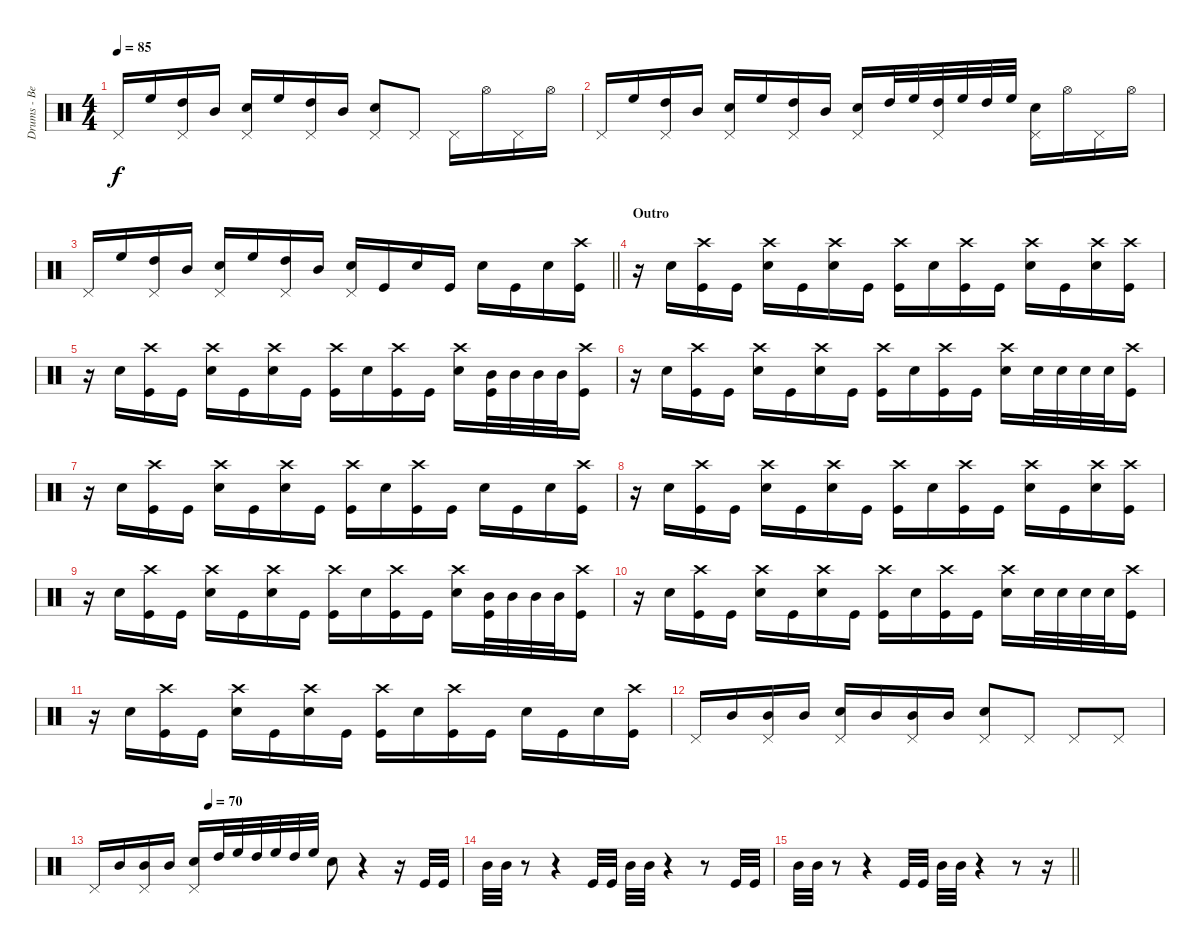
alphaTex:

\track ("Drums - Ben Johnston" "Drums - Be") {instrument percussion}
\staff {score}
\articulation defaults
\ts (4 4)
\tempo 85
\clef neutral
\ks c "Pedal Hi-Hat (hit)".16{dy f} "High Floor Tom (hit)".16
("High Tom (hit)" "Pedal Hi-Hat (hit)").16 "Mid Tom (hit)".16 ("Pedal Hi-Hat (hit)" "Snare (hit) 2").16 "High Floor Tom (hit)".16 ("High Tom (hit)" "Pedal Hi-Hat (hit)").16 "Mid Tom (hit)".16 ("Pedal Hi-Hat (hit)" "Snare (hit) 2").8 "Pedal Hi-Hat (hit)".8 "Pedal Hi-Hat (hit)".16 "Hi-Hat (open)".16 "Pedal Hi-Hat (hit)".16 "Hi-Hat (open)".16 |
"Pedal Hi-Hat (hit)".16 "High Floor Tom (hit)".16 ("High Tom (hit)" "Pedal Hi-Hat (hit)").16 "Mid Tom (hit)".16 ("Pedal Hi-Hat (hit)" "Snare (hit) 2").16 "High Floor Tom (hit)".16 ("High Tom (hit)" "Pedal Hi-Hat (hit)").16 "Mid Tom (hit)".16 ("Pedal Hi-Hat (hit)" "Snare (hit) 2").16 "High Tom (hit)".32 "High Floor Tom (hit)".32 ("High Tom (hit)" "Pedal Hi-Hat (hit)").32 "High Floor Tom (hit)".32 "High Tom (hit)".32 "High Floor Tom (hit)".32 ("Pedal Hi-Hat (hit)" "Snare (hit) 2").16 "Hi-Hat (open)".16 "Pedal Hi-Hat (hit)".16 "Hi-Hat (open)".16 |
\barLineRight lightlight "Pedal Hi-Hat (hit)".16 "High Floor Tom (hit)".16
("High Tom (hit)" "Pedal Hi-Hat (hit)").16 "Mid Tom (hit)".16 ("Pedal Hi-Hat (hit)" "Snare (hit) 2").16 "High Floor Tom (hit)".16 ("High Tom (hit)" "Pedal Hi-Hat (hit)").16 "Mid Tom (hit)".16 ("Pedal Hi-Hat (hit)" "Snare (hit) 2").16 "Kick (hit)".16 "Snare (hit) 2".16 "Kick (hit)".16 "Snare (hit) 2".16 "Kick (hit)".16 "Snare (hit) 2".16 ("Crash high (hit)" "Kick (hit)").16 |
\section ("" "Outro")
r.16 "Snare (hit) 2".16 ("Crash high (hit)" "Kick (hit)").16 "Kick (hit)".16 ("Crash high (hit)" "Snare (hit) 2").16 "Kick (hit)".16 ("Crash high (hit)" "Snare (hit) 2").16 "Kick (hit)".16 ("Crash high (hit)" "Kick (hit)").16 "Snare (hit) 2".16 ("Crash high (hit)" "Kick (hit)").16 "Kick (hit)".16 ("Crash high (hit)" "Snare (hit) 2").16 "Kick (hit)".16 ("Crash high (hit)" "Snare (hit) 2").16 ("Crash high (hit)" "Kick (hit)").16 |
r.16 "Snare (hit) 2".16 ("Crash high (hit)" "Kick (hit)").16 "Kick (hit)".16 ("Crash high (hit)" "Snare (hit) 2").16 "Kick (hit)".16 ("Crash high (hit)" "Snare (hit) 2").16 "Kick (hit)".16 ("Crash high (hit)" "Kick (hit)").16 "Snare (hit) 2".16 ("Crash high (hit)" "Kick (hit)").16 "Kick (hit)".16 ("Crash high (hit)" "Snare (hit) 2").16 ("Mid Tom (hit)" "Kick (hit)").32 "Mid Tom (hit)".32 "Mid Tom (hit)".32 "Mid Tom (hit)".32 ("Crash high (hit)" "Kick (hit)").16 |
r.16 "Snare (hit) 2".16 ("Crash high (hit)" "Kick (hit)").16 "Kick (hit)".16 ("Crash high (hit)" "Snare (hit) 2").16 "Kick (hit)".16 ("Crash high (hit)" "Snare (hit) 2").16 "Kick (hit)".16 ("Crash high (hit)" "Kick (hit)").16 "Snare (hit) 2".16 ("Crash high (hit)" "Kick (hit)").16 "Kick (hit)".16 ("Crash high (hit)" "Snare (hit) 2").16 "Snare (hit) 2".32 "Snare (hit) 2".32 "Snare (hit) 2".32 "Snare (hit) 2".32 ("Crash high (hit)" "Kick (hit)").16 |
r.16 "Snare (hit) 2".16 ("Crash high (hit)" "Kick (hit)").16 "Kick (hit)".16 ("Crash high (hit)" "Snare (hit) 2").16 "Kick (hit)".16 ("Crash high (hit)" "Snare (hit) 2").16 "Kick (hit)".16 ("Crash high (hit)" "Kick (hit)").16 "Snare (hit) 2".16 ("Crash high (hit)" "Kick (hit)").16 "Kick (hit)".16 "Snare (hit) 2".16 "Kick (hit)".16 "Snare (hit) 2".16 ("Crash high (hit)" "Kick (hit)").16 |
r.16 "Snare (hit) 2".16 ("Crash high (hit)" "Kick (hit)").16 "Kick (hit)".16 ("Crash high (hit)" "Snare (hit) 2").16 "Kick (hit)".16 ("Crash high (hit)" "Snare (hit) 2").16 "Kick (hit)".16 ("Crash high (hit)" "Kick (hit)").16 "Snare (hit) 2".16 ("Crash high (hit)" "Kick (hit)").16 "Kick (hit)".16 ("Crash high (hit)" "Snare (hit) 2").16 "Kick (hit)".16 ("Crash high (hit)" "Snare (hit) 2").16 ("Crash high (hit)" "Kick (hit)").16 |
r.16 "Snare (hit) 2".16 ("Crash high (hit)" "Kick (hit)").16 "Kick (hit)".16 ("Crash high (hit)" "Snare (hit) 2").16 "Kick (hit)".16 ("Crash high (hit)" "Snare (hit) 2").16 "Kick (hit)".16 ("Crash high (hit)" "Kick (hit)").16 "Snare (hit) 2".16 ("Crash high (hit)" "Kick (hit)").16 "Kick (hit)".16 ("Crash high (hit)" "Snare (hit) 2").16 ("Mid Tom (hit)" "Kick (hit)").32 "Mid Tom (hit)".32 "Mid Tom (hit)".32 "Mid Tom (hit)".32 ("Crash high (hit)" "Kick (hit)").16 |
r.16 "Snare (hit) 2".16 ("Crash high (hit)" "Kick (hit)").16 "Kick (hit)".16 ("Crash high (hit)" "Snare (hit) 2").16 "Kick (hit)".16 ("Crash high (hit)" "Snare (hit) 2").16 "Kick (hit)".16 ("Crash high (hit)" "Kick (hit)").16 "Snare (hit) 2".16 ("Crash high (hit)" "Kick (hit)").16 "Kick (hit)".16 ("Crash high (hit)" "Snare (hit) 2").16 "Snare (hit) 2".32 "Snare (hit) 2".32 "Snare (hit) 2".32 "Snare (hit) 2".32 ("Crash high (hit)" "Kick (hit)").16 |
r.16 "Snare (hit) 2".16 ("Crash high (hit)" "Kick (hit)").16 "Kick (hit)".16 ("Crash high (hit)" "Snare (hit) 2").16 "Kick (hit)".16 ("Crash high (hit)" "Snare (hit) 2").16 "Kick (hit)".16 ("Crash high (hit)" "Kick (hit)").16 "Snare (hit) 2".16 ("Crash high (hit)" "Kick (hit)").16 "Kick (hit)".16 "Snare (hit) 2".16 "Kick (hit)".16 "Snare (hit) 2".16 ("Crash high (hit)" "Kick (hit)").16 |
"Pedal Hi-Hat (hit)".16 "Mid Tom (hit)".16 ("Mid Tom (hit)" "Pedal Hi-Hat (hit)").16 "Mid Tom (hit)".16 ("Pedal Hi-Hat (hit)" "Snare (hit) 2").16 "Mid Tom (hit)".16 ("Mid Tom (hit)" "Pedal Hi-Hat (hit)").16 "Mid Tom (hit)".16 ("Pedal Hi-Hat (hit)" "Snare (hit) 2").8 "Pedal Hi-Hat (hit)".8 "Pedal Hi-Hat (hit)".8 "Pedal Hi-Hat (hit)".8 |
\tempo (70 0.3125)
"Pedal Hi-Hat (hit)".16 "Mid Tom (hit)".16 ("Mid Tom (hit)" "Pedal Hi-Hat (hit)").16 "Mid Tom (hit)".16 ("Pedal Hi-Hat (hit)" "Snare (hit) 2").16 "High Tom (hit)".32 "High Floor Tom (hit)".32 "High Tom (hit)".32 "High Floor Tom (hit)".32 "High Tom (hit)".32 "High Floor Tom (hit)".32 "Snare (hit) 2".8 r.4 r.16 "Kick (hit)".32 "Kick (hit)".32 |
"Mid Tom (hit)".32 "Mid Tom (hit)".32 r.8 r.4 "Kick (hit)".32 "Kick (hit)".32 "Mid Tom (hit)".32 "Mid Tom (hit)".32 r.4 r.8 "Kick (hit)".32 "Kick (hit)".32 |
\barLineRight lightlight "Mid Tom (hit)".32 "Mid Tom (hit)".32
r.8 r.4 "Kick (hit)".32 "Kick (hit)".32 "Mid Tom (hit)".32 "Mid Tom (hit)".32 r.4 r.8 r.16
